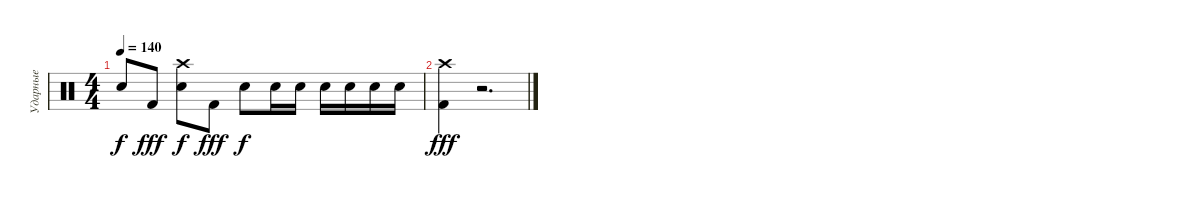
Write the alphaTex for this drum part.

\track ("Ударные" "Ударные") {instrument percussion}
\staff {score}
\articulation defaults
\ts (4 4)
\tempo 140
\clef neutral
\ks c "Snare (hit)"{t}.8{dy f} "Kick (hit) 2".8{dy fff}
("Snare (hit) 2" "Crash high (hit)").8{dy f} "Kick (hit) 2".8{dy fff} "Snare (hit) 2".8{dy f} "Snare (hit) 2".16 "Snare (hit) 2".16 "Snare (hit) 2".16 "Snare (hit) 2".16 "Snare (hit) 2".16 "Snare (hit) 2".16 |
("Kick (hit) 2" "Crash high (hit)").4{dy fff} r.2{d}
